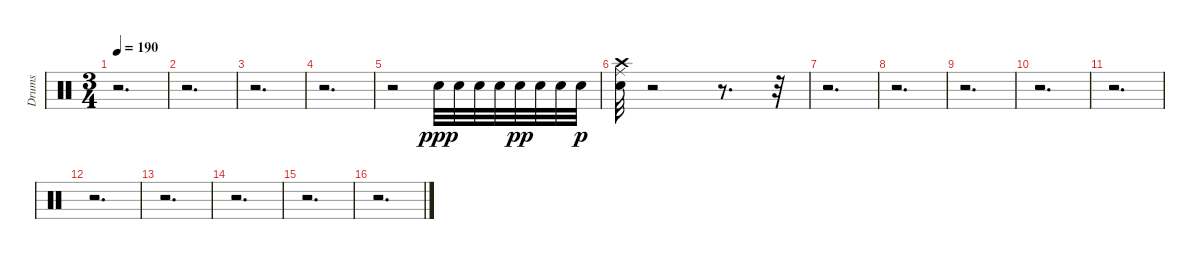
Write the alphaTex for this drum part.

\track ("Drums" "Drums") {instrument percussion}
\staff {score}
\articulation defaults
\ts (3 4)
\tempo 190
\clef neutral
\ks c
r.2{d dy p} |
r.2{d} |
r.2{d} |
r.2{d} |
r.2 "Electric Snare (hit)".32{dy ppp} "Electric Snare (hit)".32 "Electric Snare (hit)".32 "Electric Snare (hit)".32 "Electric Snare (hit)".32{dy pp} "Electric Snare (hit)".32 "Electric Snare (hit)".32 "Electric Snare (hit)".32{dy p} |
("Crash high (hit)" "Ride (middle)" "Electric Snare (hit)").32 r.2 r.8{d} r.32 |
r.2{d} |
r.2{d} |
r.2{d} |
r.2{d} |
r.2{d} |
r.2{d} |
r.2{d} |
r.2{d} |
r.2{d} |
r.2{d}
